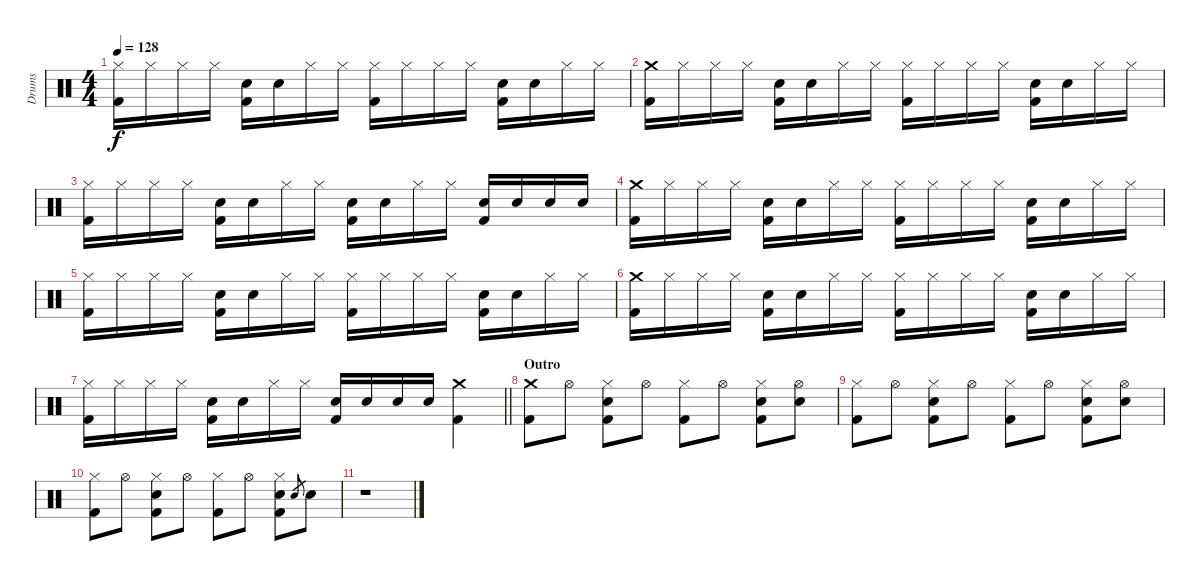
\track ("Drums" "Drums") {instrument percussion}
\staff {score}
\articulation defaults
\ts (4 4)
\tempo 128
\clef neutral
\ks c
("Hi-Hat (closed)" "Kick (hit) 2").16{dy f} "Hi-Hat (closed)".16 "Hi-Hat (closed)".16 "Hi-Hat (closed)".16 ("Electric Snare (hit)" "Kick (hit) 2").16 "Electric Snare (hit)".16 "Hi-Hat (closed)".16 "Hi-Hat (closed)".16 ("Hi-Hat (closed)" "Kick (hit) 2").16 "Hi-Hat (closed)".16 "Hi-Hat (closed)".16 "Hi-Hat (closed)".16 ("Electric Snare (hit)" "Kick (hit) 2").16 "Electric Snare (hit)".16 "Hi-Hat (closed)".16 "Hi-Hat (closed)".16 |
("Crash medium (hit)" "Kick (hit) 2").16 "Hi-Hat (closed)".16 "Hi-Hat (closed)".16 "Hi-Hat (closed)".16 ("Electric Snare (hit)" "Kick (hit) 2").16 "Electric Snare (hit)".16 "Hi-Hat (closed)".16 "Hi-Hat (closed)".16 ("Hi-Hat (closed)" "Kick (hit) 2").16 "Hi-Hat (closed)".16 "Hi-Hat (closed)".16 "Hi-Hat (closed)".16 ("Electric Snare (hit)" "Kick (hit) 2").16 "Electric Snare (hit)".16 "Hi-Hat (closed)".16 "Hi-Hat (closed)".16 |
("Hi-Hat (closed)" "Kick (hit) 2").16 "Hi-Hat (closed)".16 "Hi-Hat (closed)".16 "Hi-Hat (closed)".16 ("Electric Snare (hit)" "Kick (hit) 2").16 "Electric Snare (hit)".16 "Hi-Hat (closed)".16 "Hi-Hat (closed)".16 ("Electric Snare (hit)" "Kick (hit) 2").16 "Electric Snare (hit)".16 "Hi-Hat (closed)".16 "Hi-Hat (closed)".16 ("Electric Snare (hit)" "Kick (hit) 2").16 "Electric Snare (hit)".16 "Electric Snare (hit)".16 "Electric Snare (hit)".16 |
("Crash medium (hit)" "Kick (hit) 2").16 "Hi-Hat (closed)".16 "Hi-Hat (closed)".16 "Hi-Hat (closed)".16 ("Electric Snare (hit)" "Kick (hit) 2").16 "Electric Snare (hit)".16 "Hi-Hat (closed)".16 "Hi-Hat (closed)".16 ("Hi-Hat (closed)" "Kick (hit) 2").16 "Hi-Hat (closed)".16 "Hi-Hat (closed)".16 "Hi-Hat (closed)".16 ("Electric Snare (hit)" "Kick (hit) 2").16 "Electric Snare (hit)".16 "Hi-Hat (closed)".16 "Hi-Hat (closed)".16 |
("Hi-Hat (closed)" "Kick (hit) 2").16 "Hi-Hat (closed)".16 "Hi-Hat (closed)".16 "Hi-Hat (closed)".16 ("Electric Snare (hit)" "Kick (hit) 2").16 "Electric Snare (hit)".16 "Hi-Hat (closed)".16 "Hi-Hat (closed)".16 ("Hi-Hat (closed)" "Kick (hit) 2").16 "Hi-Hat (closed)".16 "Hi-Hat (closed)".16 "Hi-Hat (closed)".16 ("Electric Snare (hit)" "Kick (hit) 2").16 "Electric Snare (hit)".16 "Hi-Hat (closed)".16 "Hi-Hat (closed)".16 |
("Crash medium (hit)" "Kick (hit) 2").16 "Hi-Hat (closed)".16 "Hi-Hat (closed)".16 "Hi-Hat (closed)".16 ("Electric Snare (hit)" "Kick (hit) 2").16 "Electric Snare (hit)".16 "Hi-Hat (closed)".16 "Hi-Hat (closed)".16 ("Hi-Hat (closed)" "Kick (hit) 2").16 "Hi-Hat (closed)".16 "Hi-Hat (closed)".16 "Hi-Hat (closed)".16 ("Electric Snare (hit)" "Kick (hit) 2").16 "Electric Snare (hit)".16 "Hi-Hat (closed)".16 "Hi-Hat (closed)".16 |
\barLineRight lightlight
("Hi-Hat (closed)" "Kick (hit) 2").16 "Hi-Hat (closed)".16 "Hi-Hat (closed)".16 "Hi-Hat (closed)".16 ("Electric Snare (hit)" "Kick (hit) 2").16 "Electric Snare (hit)".16 "Hi-Hat (closed)".16 "Hi-Hat (closed)".16 ("Electric Snare (hit)" "Kick (hit) 2").16 "Electric Snare (hit)".16 "Electric Snare (hit)".16 "Electric Snare (hit)".16 ("Crash medium (hit)" "Kick (hit) 2").4 |
\section ("" "Outro")
("Crash medium (hit)" "Kick (hit) 2").8 "Hi-Hat (open)".8 ("Hi-Hat (closed)" "Electric Snare (hit)" "Kick (hit) 2").8 "Hi-Hat (open)".8 ("Hi-Hat (closed)" "Kick (hit) 2").8 "Hi-Hat (open)".8 ("Hi-Hat (closed)" "Electric Snare (hit)" "Kick (hit) 2").8 ("Hi-Hat (open)" "Electric Snare (hit)").8 |
("Hi-Hat (closed)" "Kick (hit) 2").8 "Hi-Hat (open)".8 ("Hi-Hat (closed)" "Electric Snare (hit)" "Kick (hit) 2").8 "Hi-Hat (open)".8 ("Hi-Hat (closed)" "Kick (hit) 2").8 "Hi-Hat (open)".8 ("Hi-Hat (closed)" "Electric Snare (hit)" "Kick (hit) 2").8 ("Hi-Hat (open)" "Electric Snare (hit)").8 |
("Hi-Hat (closed)" "Kick (hit) 2").8 "Hi-Hat (open)".8 ("Hi-Hat (closed)" "Electric Snare (hit)" "Kick (hit) 2").8 "Hi-Hat (open)".8 ("Hi-Hat (closed)" "Kick (hit) 2").8 "Hi-Hat (open)".8 ("Hi-Hat (closed)" "Electric Snare (hit)" "Kick (hit) 2").8 "Electric Snare (hit)".8{gr} "Electric Snare (hit)".8 |
r.1
